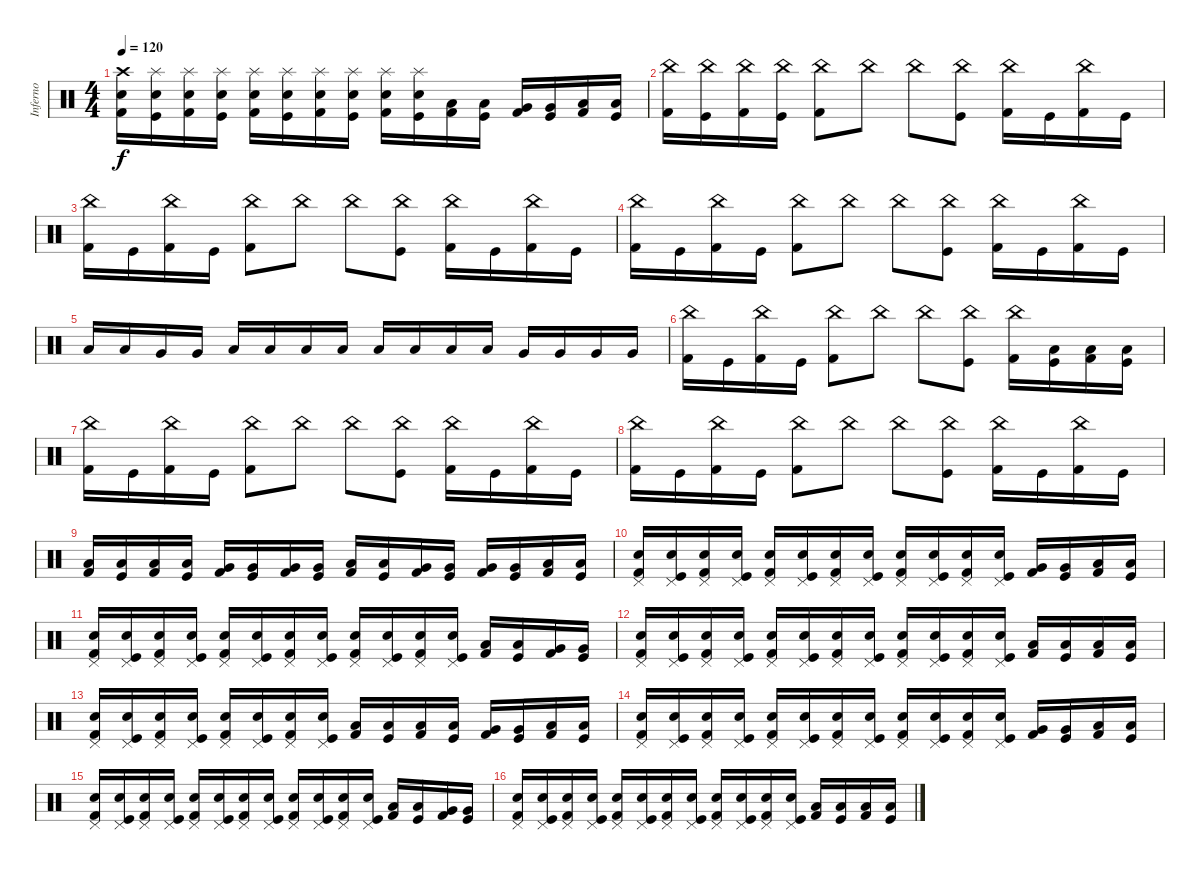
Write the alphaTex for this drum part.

\track ("Inferno" "Inferno") {instrument percussion}
\staff {score}
\articulation defaults
\ts (4 4)
\tempo 120
\clef neutral
\ks c
("Crash high (hit)" "Electric Snare (hit)" "Kick (hit) 2").16{dy f} ("Splash (hit)" "Electric Snare (hit)" "Kick (hit)").16 ("Splash (hit)" "Electric Snare (hit)" "Kick (hit) 2").16 ("Splash (hit)" "Electric Snare (hit)" "Kick (hit)").16 ("Splash (hit)" "Electric Snare (hit)" "Kick (hit) 2").16 ("Splash (hit)" "Electric Snare (hit)" "Kick (hit)").16 ("Splash (hit)" "Electric Snare (hit)" "Kick (hit) 2").16 ("Splash (hit)" "Electric Snare (hit)" "Kick (hit)").16 ("Splash (hit)" "Electric Snare (hit)" "Kick (hit) 2").16 ("Splash (hit)" "Electric Snare (hit)" "Kick (hit)").16 ("Low Tom (hit)" "Kick (hit) 2").16 ("Low Tom (hit)" "Kick (hit)").16 ("Very Low Tom (hit)" "Kick (hit) 2").16 ("Very Low Tom (hit)" "Kick (hit)").16 ("Low Floor Tom (hit)" "Kick (hit) 2").16 ("Low Floor Tom (hit)" "Kick (hit)").16 |
("China (hit)" "Kick (hit) 2").16{volume 16} ("China (hit)" "Kick (hit)").16 ("China (hit)" "Kick (hit) 2").16 ("China (hit)" "Kick (hit)").16 ("China (hit)" "Kick (hit) 2").8 "China (hit)".8 "China (hit)".8 ("China (hit)" "Kick (hit)").8 ("China (hit)" "Kick (hit) 2").16 "Kick (hit)".16 ("China (hit)" "Kick (hit) 2").16 "Kick (hit)".16 |
("China (hit)" "Kick (hit) 2").16 "Kick (hit)".16 ("China (hit)" "Kick (hit) 2").16 "Kick (hit)".16 ("China (hit)" "Kick (hit) 2").8 "China (hit)".8 "China (hit)".8 ("China (hit)" "Kick (hit)").8 ("China (hit)" "Kick (hit) 2").16 "Kick (hit)".16 ("China (hit)" "Kick (hit) 2").16 "Kick (hit)".16 |
("China (hit)" "Kick (hit) 2").16 "Kick (hit)".16 ("China (hit)" "Kick (hit) 2").16 "Kick (hit)".16 ("China (hit)" "Kick (hit) 2").8 "China (hit)".8 "China (hit)".8 ("China (hit)" "Kick (hit)").8 ("China (hit)" "Kick (hit) 2").16 "Kick (hit)".16 ("China (hit)" "Kick (hit) 2").16 "Kick (hit)".16 |
"Low Tom (hit)".16 "Low Tom (hit)".16 "Very Low Tom (hit)".16 "Very Low Tom (hit)".16 "Low Floor Tom (hit)".16 "Low Floor Tom (hit)".16 "Low Floor Tom (hit)".16 "Low Floor Tom (hit)".16 "Low Tom (hit)".16 "Low Tom (hit)".16 "Low Tom (hit)".16 "Low Tom (hit)".16 "Very Low Tom (hit)".16 "Very Low Tom (hit)".16 "Very Low Tom (hit)".16 "Very Low Tom (hit)".16 |
("China (hit)" "Kick (hit) 2").16 "Kick (hit)".16 ("China (hit)" "Kick (hit) 2").16 "Kick (hit)".16 ("China (hit)" "Kick (hit) 2").8 "China (hit)".8 "China (hit)".8 ("China (hit)" "Kick (hit)").8 ("China (hit)" "Kick (hit) 2").16 ("Low Tom (hit)" "Kick (hit)").16 ("Low Tom (hit)" "Kick (hit) 2").16 ("Low Tom (hit)" "Kick (hit)").16 |
("China (hit)" "Kick (hit) 2").16 "Kick (hit)".16 ("China (hit)" "Kick (hit) 2").16 "Kick (hit)".16 ("China (hit)" "Kick (hit) 2").8 "China (hit)".8 "China (hit)".8 ("China (hit)" "Kick (hit)").8 ("China (hit)" "Kick (hit) 2").16 "Kick (hit)".16 ("China (hit)" "Kick (hit) 2").16 "Kick (hit)".16 |
("China (hit)" "Kick (hit) 2").16 "Kick (hit)".16 ("China (hit)" "Kick (hit) 2").16 "Kick (hit)".16 ("China (hit)" "Kick (hit) 2").8 "China (hit)".8 "China (hit)".8 ("China (hit)" "Kick (hit)").8 ("China (hit)" "Kick (hit) 2").16 "Kick (hit)".16 ("China (hit)" "Kick (hit) 2").16 "Kick (hit)".16 |
("Low Tom (hit)" "Kick (hit) 2").16 ("Low Tom (hit)" "Kick (hit)").16 ("Low Tom (hit)" "Kick (hit) 2").16 ("Low Tom (hit)" "Kick (hit)").16 ("Very Low Tom (hit)" "Kick (hit) 2").16 ("Very Low Tom (hit)" "Kick (hit)").16 ("Very Low Tom (hit)" "Kick (hit) 2").16 ("Very Low Tom (hit)" "Kick (hit)").16 ("Low Tom (hit)" "Kick (hit) 2").16 ("Low Tom (hit)" "Kick (hit)").16 ("Very Low Tom (hit)" "Kick (hit) 2").16 ("Very Low Tom (hit)" "Kick (hit)").16 ("Very Low Tom (hit)" "Kick (hit) 2").16 ("Very Low Tom (hit)" "Kick (hit)").16 ("Low Floor Tom (hit)" "Kick (hit) 2").16 ("Low Floor Tom (hit)" "Kick (hit)").16 |
("Pedal Hi-Hat (hit)" "Electric Snare (hit)" "Kick (hit) 2").16{volume 11} ("Pedal Hi-Hat (hit)" "Electric Snare (hit)" "Kick (hit)").16 ("Pedal Hi-Hat (hit)" "Electric Snare (hit)" "Kick (hit) 2").16 ("Pedal Hi-Hat (hit)" "Electric Snare (hit)" "Kick (hit)").16 ("Pedal Hi-Hat (hit)" "Electric Snare (hit)" "Kick (hit) 2").16 ("Pedal Hi-Hat (hit)" "Electric Snare (hit)" "Kick (hit)").16 ("Pedal Hi-Hat (hit)" "Electric Snare (hit)" "Kick (hit) 2").16 ("Pedal Hi-Hat (hit)" "Electric Snare (hit)" "Kick (hit)").16 ("Pedal Hi-Hat (hit)" "Electric Snare (hit)" "Kick (hit) 2").16 ("Pedal Hi-Hat (hit)" "Electric Snare (hit)" "Kick (hit)").16 ("Pedal Hi-Hat (hit)" "Electric Snare (hit)" "Kick (hit) 2").16 ("Pedal Hi-Hat (hit)" "Electric Snare (hit)" "Kick (hit)").16 ("Very Low Tom (hit)" "Kick (hit) 2").16 ("Very Low Tom (hit)" "Kick (hit)").16 ("Low Floor Tom (hit)" "Kick (hit) 2").16 ("Low Floor Tom (hit)" "Kick (hit)").16 |
("Pedal Hi-Hat (hit)" "Electric Snare (hit)" "Kick (hit) 2").16 ("Pedal Hi-Hat (hit)" "Electric Snare (hit)" "Kick (hit)").16 ("Pedal Hi-Hat (hit)" "Electric Snare (hit)" "Kick (hit) 2").16 ("Pedal Hi-Hat (hit)" "Electric Snare (hit)" "Kick (hit)").16 ("Pedal Hi-Hat (hit)" "Electric Snare (hit)" "Kick (hit) 2").16 ("Pedal Hi-Hat (hit)" "Electric Snare (hit)" "Kick (hit)").16 ("Pedal Hi-Hat (hit)" "Electric Snare (hit)" "Kick (hit) 2").16 ("Pedal Hi-Hat (hit)" "Electric Snare (hit)" "Kick (hit)").16 ("Pedal Hi-Hat (hit)" "Electric Snare (hit)" "Kick (hit) 2").16 ("Pedal Hi-Hat (hit)" "Electric Snare (hit)" "Kick (hit)").16 ("Pedal Hi-Hat (hit)" "Electric Snare (hit)" "Kick (hit) 2").16 ("Pedal Hi-Hat (hit)" "Electric Snare (hit)" "Kick (hit)").16 ("Low Tom (hit)" "Kick (hit) 2").16 ("Low Tom (hit)" "Kick (hit)").16 ("Very Low Tom (hit)" "Kick (hit) 2").16 ("Very Low Tom (hit)" "Kick (hit)").16 |
("Pedal Hi-Hat (hit)" "Electric Snare (hit)" "Kick (hit) 2").16 ("Pedal Hi-Hat (hit)" "Electric Snare (hit)" "Kick (hit)").16 ("Pedal Hi-Hat (hit)" "Electric Snare (hit)" "Kick (hit) 2").16 ("Pedal Hi-Hat (hit)" "Electric Snare (hit)" "Kick (hit)").16 ("Pedal Hi-Hat (hit)" "Electric Snare (hit)" "Kick (hit) 2").16 ("Pedal Hi-Hat (hit)" "Electric Snare (hit)" "Kick (hit)").16 ("Pedal Hi-Hat (hit)" "Electric Snare (hit)" "Kick (hit) 2").16 ("Pedal Hi-Hat (hit)" "Electric Snare (hit)" "Kick (hit)").16 ("Pedal Hi-Hat (hit)" "Electric Snare (hit)" "Kick (hit) 2").16 ("Pedal Hi-Hat (hit)" "Electric Snare (hit)" "Kick (hit)").16 ("Pedal Hi-Hat (hit)" "Electric Snare (hit)" "Kick (hit) 2").16 ("Pedal Hi-Hat (hit)" "Electric Snare (hit)" "Kick (hit)").16 ("Low Tom (hit)" "Kick (hit) 2").16 ("Low Tom (hit)" "Kick (hit)").16 ("Low Tom (hit)" "Kick (hit) 2").16 ("Low Tom (hit)" "Kick (hit)").16 |
("Pedal Hi-Hat (hit)" "Electric Snare (hit)" "Kick (hit) 2").16 ("Pedal Hi-Hat (hit)" "Electric Snare (hit)" "Kick (hit)").16 ("Pedal Hi-Hat (hit)" "Electric Snare (hit)" "Kick (hit) 2").16 ("Pedal Hi-Hat (hit)" "Electric Snare (hit)" "Kick (hit)").16 ("Pedal Hi-Hat (hit)" "Electric Snare (hit)" "Kick (hit) 2").16 ("Pedal Hi-Hat (hit)" "Electric Snare (hit)" "Kick (hit)").16 ("Pedal Hi-Hat (hit)" "Electric Snare (hit)" "Kick (hit) 2").16 ("Pedal Hi-Hat (hit)" "Electric Snare (hit)" "Kick (hit)").16 ("Low Tom (hit)" "Kick (hit) 2").16 ("Low Tom (hit)" "Kick (hit)").16 ("Low Tom (hit)" "Kick (hit) 2").16 ("Low Tom (hit)" "Kick (hit)").16 ("Very Low Tom (hit)" "Kick (hit) 2").16 ("Very Low Tom (hit)" "Kick (hit)").16 ("Low Floor Tom (hit)" "Kick (hit) 2").16 ("Low Floor Tom (hit)" "Kick (hit)").16 |
("Pedal Hi-Hat (hit)" "Electric Snare (hit)" "Kick (hit) 2").16 ("Pedal Hi-Hat (hit)" "Electric Snare (hit)" "Kick (hit)").16 ("Pedal Hi-Hat (hit)" "Electric Snare (hit)" "Kick (hit) 2").16 ("Pedal Hi-Hat (hit)" "Electric Snare (hit)" "Kick (hit)").16 ("Pedal Hi-Hat (hit)" "Electric Snare (hit)" "Kick (hit) 2").16 ("Pedal Hi-Hat (hit)" "Electric Snare (hit)" "Kick (hit)").16 ("Pedal Hi-Hat (hit)" "Electric Snare (hit)" "Kick (hit) 2").16 ("Pedal Hi-Hat (hit)" "Electric Snare (hit)" "Kick (hit)").16 ("Pedal Hi-Hat (hit)" "Electric Snare (hit)" "Kick (hit) 2").16 ("Pedal Hi-Hat (hit)" "Electric Snare (hit)" "Kick (hit)").16 ("Pedal Hi-Hat (hit)" "Electric Snare (hit)" "Kick (hit) 2").16 ("Pedal Hi-Hat (hit)" "Electric Snare (hit)" "Kick (hit)").16 ("Very Low Tom (hit)" "Kick (hit) 2").16 ("Very Low Tom (hit)" "Kick (hit)").16 ("Low Floor Tom (hit)" "Kick (hit) 2").16 ("Low Floor Tom (hit)" "Kick (hit)").16 |
("Pedal Hi-Hat (hit)" "Electric Snare (hit)" "Kick (hit) 2").16 ("Pedal Hi-Hat (hit)" "Electric Snare (hit)" "Kick (hit)").16 ("Pedal Hi-Hat (hit)" "Electric Snare (hit)" "Kick (hit) 2").16 ("Pedal Hi-Hat (hit)" "Electric Snare (hit)" "Kick (hit)").16 ("Pedal Hi-Hat (hit)" "Electric Snare (hit)" "Kick (hit) 2").16 ("Pedal Hi-Hat (hit)" "Electric Snare (hit)" "Kick (hit)").16 ("Pedal Hi-Hat (hit)" "Electric Snare (hit)" "Kick (hit) 2").16 ("Pedal Hi-Hat (hit)" "Electric Snare (hit)" "Kick (hit)").16 ("Pedal Hi-Hat (hit)" "Electric Snare (hit)" "Kick (hit) 2").16 ("Pedal Hi-Hat (hit)" "Electric Snare (hit)" "Kick (hit)").16 ("Pedal Hi-Hat (hit)" "Electric Snare (hit)" "Kick (hit) 2").16 ("Pedal Hi-Hat (hit)" "Electric Snare (hit)" "Kick (hit)").16 ("Low Tom (hit)" "Kick (hit) 2").16 ("Low Tom (hit)" "Kick (hit)").16 ("Very Low Tom (hit)" "Kick (hit) 2").16 ("Very Low Tom (hit)" "Kick (hit)").16 |
("Pedal Hi-Hat (hit)" "Electric Snare (hit)" "Kick (hit) 2").16 ("Pedal Hi-Hat (hit)" "Electric Snare (hit)" "Kick (hit)").16 ("Pedal Hi-Hat (hit)" "Electric Snare (hit)" "Kick (hit) 2").16 ("Pedal Hi-Hat (hit)" "Electric Snare (hit)" "Kick (hit)").16 ("Pedal Hi-Hat (hit)" "Electric Snare (hit)" "Kick (hit) 2").16 ("Pedal Hi-Hat (hit)" "Electric Snare (hit)" "Kick (hit)").16 ("Pedal Hi-Hat (hit)" "Electric Snare (hit)" "Kick (hit) 2").16 ("Pedal Hi-Hat (hit)" "Electric Snare (hit)" "Kick (hit)").16 ("Pedal Hi-Hat (hit)" "Electric Snare (hit)" "Kick (hit) 2").16 ("Pedal Hi-Hat (hit)" "Electric Snare (hit)" "Kick (hit)").16 ("Pedal Hi-Hat (hit)" "Electric Snare (hit)" "Kick (hit) 2").16 ("Pedal Hi-Hat (hit)" "Electric Snare (hit)" "Kick (hit)").16 ("Low Tom (hit)" "Kick (hit) 2").16 ("Low Tom (hit)" "Kick (hit)").16 ("Low Tom (hit)" "Kick (hit) 2").16 ("Low Tom (hit)" "Kick (hit)").16
